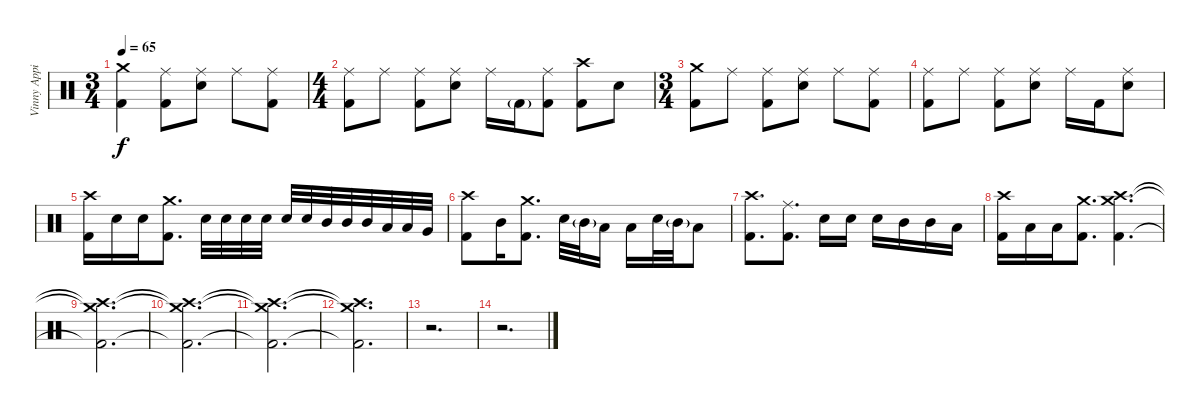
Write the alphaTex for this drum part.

\track ("Vinny Appice" "Vinny Appi") {instrument percussion}
\staff {score}
\articulation defaults
\ts (3 4)
\tempo 65
\clef neutral
\ks c
("Crash medium (hit)" "Kick (hit) 2").4{dy f} ("Ride (middle)" "Kick (hit) 2").8 ("Ride (middle)" "Snare (hit) 2").8 "Ride (middle)".8 ("Ride (middle)" "Kick (hit) 2").8 |
\ts (4 4)
("Ride (middle)" "Kick (hit) 2").8 "Ride (middle)".8 ("Ride (middle)" "Kick (hit) 2").8 ("Ride (middle)" "Snare (hit) 2").8 "Ride (middle)".16 "Kick (hit) 2"{g}.16 ("Ride (middle)" "Kick (hit) 2").8 ("Crash high (hit)" "Kick (hit) 2").8 "Snare (hit) 2".8 |
\ts (3 4)
("Crash medium (hit)" "Kick (hit) 2").8 "Ride (middle)".8 ("Ride (middle)" "Kick (hit) 2").8 ("Ride (middle)" "Snare (hit) 2").8 "Ride (middle)".8 ("Ride (middle)" "Kick (hit) 2").8 |
("Ride (middle)" "Kick (hit) 2").8 "Ride (middle)".8 ("Ride (middle)" "Kick (hit) 2").8 ("Ride (middle)" "Snare (hit) 2").8 "Ride (middle)".16 "Kick (hit) 2".16 ("Ride (middle)" "Snare (hit) 2").8 |
("Crash high (hit)" "Kick (hit) 2").16 "Snare (hit) 2".16 "Snare (hit) 2".16 ("Crash medium (hit)" "Kick (hit) 2").8{d} "Snare (hit) 2".32 "Snare (hit) 2".32 "Snare (hit) 2".32 "Snare (hit) 2".32 "Snare (hit) 2".32 "Snare (hit) 2".32 "Mid Tom (hit)".32 "Mid Tom (hit)".32 "Mid Tom (hit)".32 "Low Tom (hit)".32 "Low Tom (hit)".32 "Very Low Tom (hit)".32 |
("Crash high (hit)" "Kick (hit) 2").8 "Mid Tom (hit)".16 ("Crash medium (hit)" "Kick (hit) 2").8{d} "Snare (hit) 2".32 "Mid Tom (hit)"{g}.32 "Low Tom (hit)".16 "Low Tom (hit)".16 "Snare (hit) 2".32 "Mid Tom (hit)"{g}.32 "Low Tom (hit)".8 |
("Crash high (hit)" "Kick (hit) 2").8{d} ("Ride (middle)" "Kick (hit) 2").8{d} "Snare (hit) 2".16 "Snare (hit) 2".16 "Snare (hit) 2".16 "Mid Tom (hit)".16 "Mid Tom (hit)".16 "Low Tom (hit)".16 |
("Crash high (hit)" "Kick (hit) 2").16 "Low Tom (hit)".16 "Low Tom (hit)".16 ("Crash medium (hit)" "Kick (hit) 2").8{d} ("Crash medium (hit)" "Crash high (hit)" "Kick (hit) 2").4{d} |
("Crash medium (hit)"{t} "Crash high (hit)"{t} "Kick (hit) 2"{t}).2{d} |
("Crash medium (hit)"{t} "Crash high (hit)"{t} "Kick (hit) 2"{t}).2{d} |
("Crash medium (hit)"{t} "Crash high (hit)"{t} "Kick (hit) 2"{t}).2{d} |
("Crash medium (hit)"{t} "Crash high (hit)"{t} "Kick (hit) 2"{t}).2{d} |
r.2{d} |
r.2{d}
